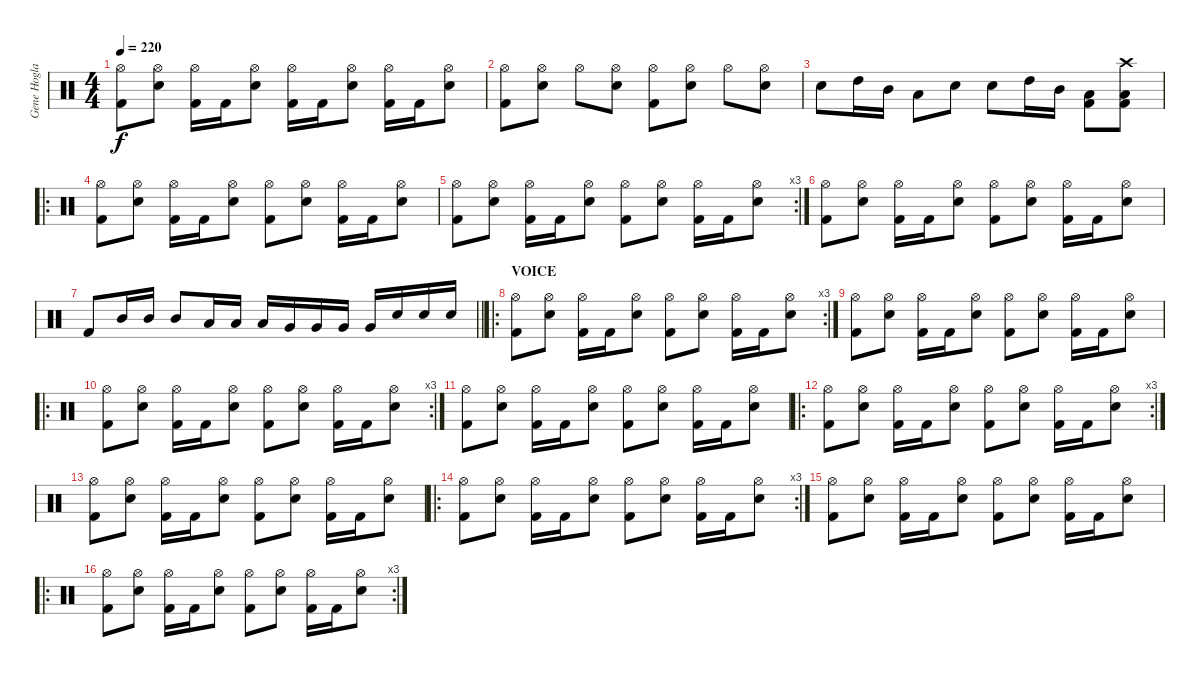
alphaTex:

\track ("Gene Hoglan" "Gene Hogla") {instrument percussion}
\staff {score}
\articulation defaults
\ts (4 4)
\tempo 220
\clef neutral
\ks c
("Hi-Hat (open)" "Kick (hit) 2").8{dy f} ("Hi-Hat (open)" "Electric Snare (hit)").8 ("Hi-Hat (open)" "Kick (hit) 2").16 "Kick (hit) 2".16 ("Hi-Hat (open)" "Electric Snare (hit)").8 ("Hi-Hat (open)" "Kick (hit) 2").16 "Kick (hit) 2".16 ("Hi-Hat (open)" "Electric Snare (hit)").8 ("Hi-Hat (open)" "Kick (hit) 2").16 "Kick (hit) 2".16 ("Hi-Hat (open)" "Electric Snare (hit)").8 |
("Hi-Hat (open)" "Kick (hit) 2").8 ("Hi-Hat (open)" "Electric Snare (hit)").8 "Hi-Hat (open)".8 ("Hi-Hat (open)" "Electric Snare (hit)").8 ("Hi-Hat (open)" "Kick (hit) 2").8 ("Hi-Hat (open)" "Electric Snare (hit)").8 "Hi-Hat (open)".8 ("Hi-Hat (open)" "Electric Snare (hit)").8 |
"Electric Snare (hit)".8 "High Tom (hit)".16 "Mid Tom (hit)".16 "Low Tom (hit)".8 "Electric Snare (hit)".8 "Electric Snare (hit)".8 "High Tom (hit)".16 "Mid Tom (hit)".16 ("Low Tom (hit)" "Kick (hit) 2").8 ("Crash high (hit)" "Low Tom (hit)" "Kick (hit) 2").8 |
\ro
("Hi-Hat (open)" "Kick (hit) 2").8 ("Hi-Hat (open)" "Electric Snare (hit)").8 ("Hi-Hat (open)" "Kick (hit) 2").16 "Kick (hit) 2".16 ("Hi-Hat (open)" "Electric Snare (hit)").8 ("Hi-Hat (open)" "Kick (hit) 2").8 ("Hi-Hat (open)" "Electric Snare (hit)").8 ("Hi-Hat (open)" "Kick (hit) 2").16 "Kick (hit) 2".16 ("Hi-Hat (open)" "Electric Snare (hit)").8 |
\rc 3
("Hi-Hat (open)" "Kick (hit) 2").8 ("Hi-Hat (open)" "Electric Snare (hit)").8 ("Hi-Hat (open)" "Kick (hit) 2").16 "Kick (hit) 2".16 ("Hi-Hat (open)" "Electric Snare (hit)").8 ("Hi-Hat (open)" "Kick (hit) 2").8 ("Hi-Hat (open)" "Electric Snare (hit)").8 ("Hi-Hat (open)" "Kick (hit) 2").16 "Kick (hit) 2".16 ("Hi-Hat (open)" "Electric Snare (hit)").8 |
("Hi-Hat (open)" "Kick (hit) 2").8 ("Hi-Hat (open)" "Electric Snare (hit)").8 ("Hi-Hat (open)" "Kick (hit) 2").16 "Kick (hit) 2".16 ("Hi-Hat (open)" "Electric Snare (hit)").8 ("Hi-Hat (open)" "Kick (hit) 2").8 ("Hi-Hat (open)" "Electric Snare (hit)").8 ("Hi-Hat (open)" "Kick (hit) 2").16 "Kick (hit) 2".16 ("Hi-Hat (open)" "Electric Snare (hit)").8 |
\barLineRight lightlight "Kick (hit) 2".8 "Mid Tom (hit)".16 "Mid Tom (hit)".16 "Mid Tom (hit)".8 "Low Tom (hit)".16 "Low Tom (hit)".16 "Low Tom (hit)".16 "Very Low Tom (hit)".16 "Very Low Tom (hit)".16 "Very Low Tom (hit)".16 "Very Low Tom (hit)".16 "Electric Snare (hit)".16 "Electric Snare (hit)".16 "Electric Snare (hit)".16
|
\ro
\rc 3
\section ("" "VOICE")
("Hi-Hat (open)" "Kick (hit) 2").8 ("Hi-Hat (open)" "Electric Snare (hit)").8 ("Hi-Hat (open)" "Kick (hit) 2").16 "Kick (hit) 2".16 ("Hi-Hat (open)" "Electric Snare (hit)").8 ("Hi-Hat (open)" "Kick (hit) 2").8 ("Hi-Hat (open)" "Electric Snare (hit)").8 ("Hi-Hat (open)" "Kick (hit) 2").16 "Kick (hit) 2".16 ("Hi-Hat (open)" "Electric Snare (hit)").8 |
("Hi-Hat (open)" "Kick (hit) 2").8 ("Hi-Hat (open)" "Electric Snare (hit)").8 ("Hi-Hat (open)" "Kick (hit) 2").16 "Kick (hit) 2".16 ("Hi-Hat (open)" "Electric Snare (hit)").8 ("Hi-Hat (open)" "Kick (hit) 2").8 ("Hi-Hat (open)" "Electric Snare (hit)").8 ("Hi-Hat (open)" "Kick (hit) 2").16 "Kick (hit) 2".16 ("Hi-Hat (open)" "Electric Snare (hit)").8 |
\ro
\rc 3
("Hi-Hat (open)" "Kick (hit) 2").8 ("Hi-Hat (open)" "Electric Snare (hit)").8 ("Hi-Hat (open)" "Kick (hit) 2").16 "Kick (hit) 2".16 ("Hi-Hat (open)" "Electric Snare (hit)").8 ("Hi-Hat (open)" "Kick (hit) 2").8 ("Hi-Hat (open)" "Electric Snare (hit)").8 ("Hi-Hat (open)" "Kick (hit) 2").16 "Kick (hit) 2".16 ("Hi-Hat (open)" "Electric Snare (hit)").8 |
("Hi-Hat (open)" "Kick (hit) 2").8 ("Hi-Hat (open)" "Electric Snare (hit)").8 ("Hi-Hat (open)" "Kick (hit) 2").16 "Kick (hit) 2".16 ("Hi-Hat (open)" "Electric Snare (hit)").8 ("Hi-Hat (open)" "Kick (hit) 2").8 ("Hi-Hat (open)" "Electric Snare (hit)").8 ("Hi-Hat (open)" "Kick (hit) 2").16 "Kick (hit) 2".16 ("Hi-Hat (open)" "Electric Snare (hit)").8 |
\ro
\rc 3
("Hi-Hat (open)" "Kick (hit) 2").8 ("Hi-Hat (open)" "Electric Snare (hit)").8 ("Hi-Hat (open)" "Kick (hit) 2").16 "Kick (hit) 2".16 ("Hi-Hat (open)" "Electric Snare (hit)").8 ("Hi-Hat (open)" "Kick (hit) 2").8 ("Hi-Hat (open)" "Electric Snare (hit)").8 ("Hi-Hat (open)" "Kick (hit) 2").16 "Kick (hit) 2".16 ("Hi-Hat (open)" "Electric Snare (hit)").8 |
("Hi-Hat (open)" "Kick (hit) 2").8 ("Hi-Hat (open)" "Electric Snare (hit)").8 ("Hi-Hat (open)" "Kick (hit) 2").16 "Kick (hit) 2".16 ("Hi-Hat (open)" "Electric Snare (hit)").8 ("Hi-Hat (open)" "Kick (hit) 2").8 ("Hi-Hat (open)" "Electric Snare (hit)").8 ("Hi-Hat (open)" "Kick (hit) 2").16 "Kick (hit) 2".16 ("Hi-Hat (open)" "Electric Snare (hit)").8 |
\ro
\rc 3
("Hi-Hat (open)" "Kick (hit) 2").8 ("Hi-Hat (open)" "Electric Snare (hit)").8 ("Hi-Hat (open)" "Kick (hit) 2").16 "Kick (hit) 2".16 ("Hi-Hat (open)" "Electric Snare (hit)").8 ("Hi-Hat (open)" "Kick (hit) 2").8 ("Hi-Hat (open)" "Electric Snare (hit)").8 ("Hi-Hat (open)" "Kick (hit) 2").16 "Kick (hit) 2".16 ("Hi-Hat (open)" "Electric Snare (hit)").8 |
("Hi-Hat (open)" "Kick (hit) 2").8 ("Hi-Hat (open)" "Electric Snare (hit)").8 ("Hi-Hat (open)" "Kick (hit) 2").16 "Kick (hit) 2".16 ("Hi-Hat (open)" "Electric Snare (hit)").8 ("Hi-Hat (open)" "Kick (hit) 2").8 ("Hi-Hat (open)" "Electric Snare (hit)").8 ("Hi-Hat (open)" "Kick (hit) 2").16 "Kick (hit) 2".16 ("Hi-Hat (open)" "Electric Snare (hit)").8 |
\ro
\rc 3
("Hi-Hat (open)" "Kick (hit) 2").8 ("Hi-Hat (open)" "Electric Snare (hit)").8 ("Hi-Hat (open)" "Kick (hit) 2").16 "Kick (hit) 2".16 ("Hi-Hat (open)" "Electric Snare (hit)").8 ("Hi-Hat (open)" "Kick (hit) 2").8 ("Hi-Hat (open)" "Electric Snare (hit)").8 ("Hi-Hat (open)" "Kick (hit) 2").16 "Kick (hit) 2".16 ("Hi-Hat (open)" "Electric Snare (hit)").8
